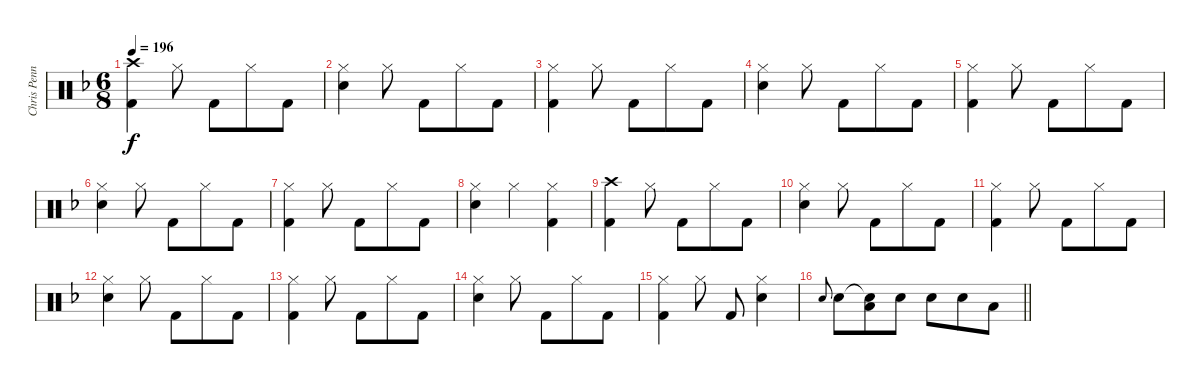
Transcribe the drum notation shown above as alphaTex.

\track ("Chris Pennie/Taylor Hawkins - Drum" "Chris Penn") {instrument percussion}
\staff {score}
\articulation defaults
\ts (6 8)
\tempo 196
\clef neutral
\ks f
("Crash high (hit)" "Kick (hit) 2").4{dy f} "Hi-Hat (closed)".8 "Kick (hit) 2".8 "Hi-Hat (closed)".8 "Kick (hit) 2".8 |
("Hi-Hat (closed)" "Electric Snare (hit)").4 "Hi-Hat (closed)".8 "Kick (hit) 2".8 "Hi-Hat (closed)".8 "Kick (hit) 2".8 |
("Hi-Hat (closed)" "Kick (hit) 2").4 "Hi-Hat (closed)".8 "Kick (hit) 2".8 "Hi-Hat (closed)".8 "Kick (hit) 2".8 |
("Hi-Hat (closed)" "Electric Snare (hit)").4 "Hi-Hat (closed)".8 "Kick (hit) 2".8 "Hi-Hat (closed)".8 "Kick (hit) 2".8 |
("Hi-Hat (closed)" "Kick (hit) 2").4 "Hi-Hat (closed)".8 "Kick (hit) 2".8 "Hi-Hat (closed)".8 "Kick (hit) 2".8 |
("Hi-Hat (closed)" "Electric Snare (hit)").4 "Hi-Hat (closed)".8 "Kick (hit) 2".8 "Hi-Hat (closed)".8 "Kick (hit) 2".8 |
("Hi-Hat (closed)" "Kick (hit) 2").4 "Hi-Hat (closed)".8 "Kick (hit) 2".8 "Hi-Hat (closed)".8 "Kick (hit) 2".8 |
("Hi-Hat (closed)" "Electric Snare (hit)").4 "Hi-Hat (closed)".4 ("Hi-Hat (closed)" "Kick (hit) 2").4 |
("Crash high (hit)" "Kick (hit) 2").4 "Hi-Hat (closed)".8 "Kick (hit) 2".8 "Hi-Hat (closed)".8 "Kick (hit) 2".8 |
("Hi-Hat (closed)" "Electric Snare (hit)").4 "Hi-Hat (closed)".8 "Kick (hit) 2".8 "Hi-Hat (closed)".8 "Kick (hit) 2".8 |
("Hi-Hat (closed)" "Kick (hit) 2").4 "Hi-Hat (closed)".8 "Kick (hit) 2".8 "Hi-Hat (closed)".8 "Kick (hit) 2".8 |
("Hi-Hat (closed)" "Electric Snare (hit)").4 "Hi-Hat (closed)".8 "Kick (hit) 2".8 "Hi-Hat (closed)".8 "Kick (hit) 2".8 |
("Hi-Hat (closed)" "Kick (hit) 2").4 "Hi-Hat (closed)".8 "Kick (hit) 2".8 "Hi-Hat (closed)".8 "Kick (hit) 2".8 |
("Hi-Hat (closed)" "Electric Snare (hit)").4 "Hi-Hat (closed)".8 "Kick (hit) 2".8 "Hi-Hat (closed)".8 "Kick (hit) 2".8 |
("Hi-Hat (closed)" "Kick (hit) 2").4 "Hi-Hat (closed)".8 "Kick (hit) 2".8 ("Hi-Hat (closed)" "Electric Snare (hit)").4 |
\barLineRight lightlight "Electric Snare (hit)".8{gr onbeat} "Electric Snare (hit)".8
("Electric Snare (hit)"{t} "Low Floor Tom (hit)").8 "Electric Snare (hit)".8 "Electric Snare (hit)".8 "Electric Snare (hit)".8 "Low Floor Tom (hit)".8
